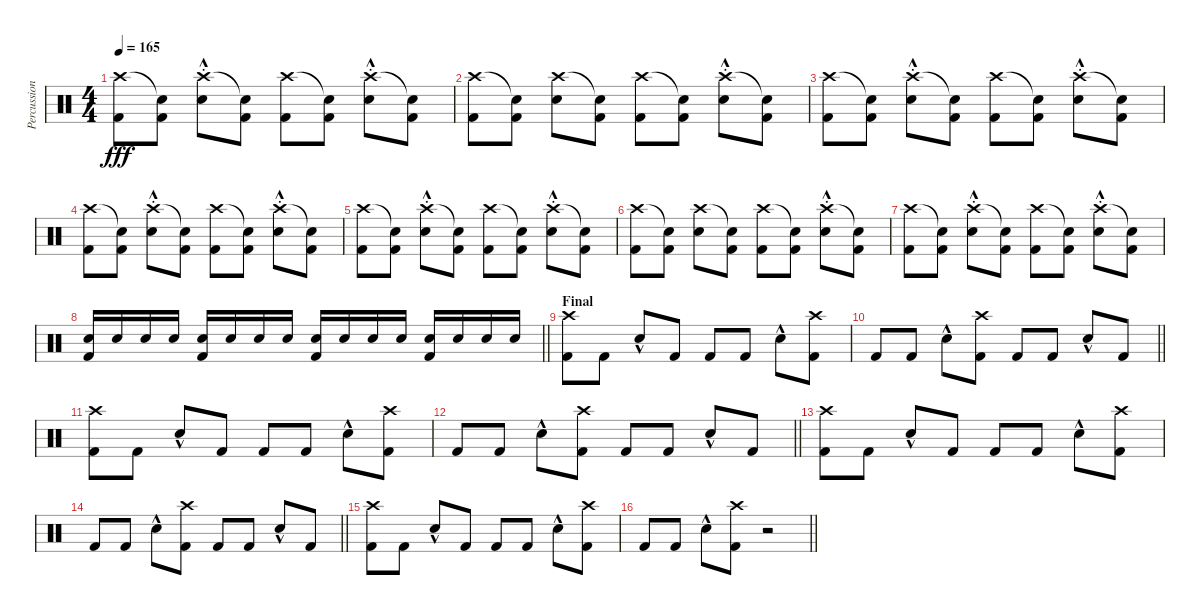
\track ("Percussions" "Percussion") {instrument percussion}
\staff {score}
\articulation defaults
\ts (4 4)
\tempo 165
\clef neutral
\ks c
("Crash high (hit)" "Kick (hit) 2").8{dy fff} ("Snare (hit)"{t} "Kick (hit) 2").8 ("Crash high (hit)"{hac st} "Electric Snare (hit)"{hac st}).8 ("Snare (hit)"{t} "Kick (hit) 2").8 ("Crash high (hit)" "Kick (hit) 2").8 ("Snare (hit)"{t} "Kick (hit) 2").8 ("Crash high (hit)"{hac st} "Electric Snare (hit)"{hac st}).8 ("Snare (hit)"{t} "Kick (hit) 2").8 |
("Crash high (hit)" "Kick (hit) 2").8 ("Snare (hit)"{t} "Kick (hit) 2").8 ("Crash high (hit)" "Electric Snare (hit)").8 ("Snare (hit)"{t} "Kick (hit) 2").8 ("Crash high (hit)" "Kick (hit) 2").8 ("Snare (hit)"{t} "Kick (hit) 2").8 ("Crash high (hit)"{hac st} "Electric Snare (hit)"{hac st}).8 ("Snare (hit)"{t} "Kick (hit) 2").8 |
("Crash high (hit)" "Kick (hit) 2").8 ("Snare (hit)"{t} "Kick (hit) 2").8 ("Crash high (hit)"{hac st} "Electric Snare (hit)"{hac st}).8 ("Snare (hit)"{t} "Kick (hit) 2").8 ("Crash high (hit)" "Kick (hit) 2").8 ("Snare (hit)"{t} "Kick (hit) 2").8 ("Crash high (hit)"{hac st} "Electric Snare (hit)"{hac st}).8 ("Snare (hit)"{t} "Kick (hit) 2").8 |
("Crash high (hit)" "Kick (hit) 2").8 ("Snare (hit)"{t} "Kick (hit) 2").8 ("Crash high (hit)"{hac st} "Electric Snare (hit)"{hac st}).8 ("Snare (hit)"{t} "Kick (hit) 2").8 ("Crash high (hit)" "Kick (hit) 2").8 ("Snare (hit)"{t} "Kick (hit) 2").8 ("Crash high (hit)"{hac st} "Electric Snare (hit)"{hac st}).8 ("Snare (hit)"{t} "Kick (hit) 2").8 |
("Crash high (hit)" "Kick (hit) 2").8 ("Snare (hit)"{t} "Kick (hit) 2").8 ("Crash high (hit)"{hac st} "Electric Snare (hit)"{hac st}).8 ("Snare (hit)"{t} "Kick (hit) 2").8 ("Crash high (hit)" "Kick (hit) 2").8 ("Snare (hit)"{t} "Kick (hit) 2").8 ("Crash high (hit)"{hac st} "Electric Snare (hit)"{hac st}).8 ("Snare (hit)"{t} "Kick (hit) 2").8 |
("Crash high (hit)" "Kick (hit) 2").8 ("Snare (hit)"{t} "Kick (hit) 2").8 ("Crash high (hit)" "Electric Snare (hit)").8 ("Snare (hit)"{t} "Kick (hit) 2").8 ("Crash high (hit)" "Kick (hit) 2").8 ("Snare (hit)"{t} "Kick (hit) 2").8 ("Crash high (hit)"{hac st} "Electric Snare (hit)"{hac st}).8 ("Snare (hit)"{t} "Kick (hit) 2").8 |
("Crash high (hit)" "Kick (hit) 2").8 ("Snare (hit)"{t} "Kick (hit) 2").8 ("Crash high (hit)"{hac st} "Electric Snare (hit)"{hac st}).8 ("Snare (hit)"{t} "Kick (hit) 2").8 ("Crash high (hit)" "Kick (hit) 2").8 ("Snare (hit)"{t} "Kick (hit) 2").8 ("Crash high (hit)"{hac st} "Electric Snare (hit)"{hac st}).8 ("Snare (hit)"{t} "Kick (hit) 2").8 |
\barLineRight lightlight
("Electric Snare (hit)" "Kick (hit) 2").16 "Electric Snare (hit)".16 "Electric Snare (hit)".16 "Electric Snare (hit)".16 ("Electric Snare (hit)" "Kick (hit) 2").16 "Electric Snare (hit)".16 "Electric Snare (hit)".16 "Electric Snare (hit)".16 ("Electric Snare (hit)" "Kick (hit) 2").16 "Electric Snare (hit)".16 "Electric Snare (hit)".16 "Electric Snare (hit)".16 ("Electric Snare (hit)" "Kick (hit) 2").16 "Electric Snare (hit)".16 "Electric Snare (hit)".16 "Electric Snare (hit)".16 |
\section ("" "Final")
("Crash high (hit)" "Kick (hit) 2").8 "Kick (hit) 2".8 "Snare (hit) 2"{hac}.8 "Kick (hit) 2".8 "Kick (hit) 2".8 "Kick (hit) 2".8 "Snare (hit) 2"{hac}.8 ("Crash high (hit)" "Kick (hit) 2").8 |
\barLineRight lightlight "Kick (hit) 2".8 "Kick (hit) 2".8 "Snare (hit) 2"{hac}.8
("Crash high (hit)" "Kick (hit) 2").8 "Kick (hit) 2".8 "Kick (hit) 2".8 "Snare (hit) 2"{hac}.8 "Kick (hit) 2".8 |
("Crash high (hit)" "Kick (hit) 2").8 "Kick (hit) 2".8 "Snare (hit) 2"{hac}.8 "Kick (hit) 2".8 "Kick (hit) 2".8 "Kick (hit) 2".8 "Snare (hit) 2"{hac}.8 ("Crash high (hit)" "Kick (hit) 2").8 |
\barLineRight lightlight "Kick (hit) 2".8 "Kick (hit) 2".8 "Snare (hit) 2"{hac}.8
("Crash high (hit)" "Kick (hit) 2").8 "Kick (hit) 2".8 "Kick (hit) 2".8 "Snare (hit) 2"{hac}.8 "Kick (hit) 2".8 |
("Crash high (hit)" "Kick (hit) 2").8 "Kick (hit) 2".8 "Snare (hit) 2"{hac}.8 "Kick (hit) 2".8 "Kick (hit) 2".8 "Kick (hit) 2".8 "Snare (hit) 2"{hac}.8 ("Crash high (hit)" "Kick (hit) 2").8 |
\barLineRight lightlight "Kick (hit) 2".8 "Kick (hit) 2".8 "Snare (hit) 2"{hac}.8
("Crash high (hit)" "Kick (hit) 2").8 "Kick (hit) 2".8 "Kick (hit) 2".8 "Snare (hit) 2"{hac}.8 "Kick (hit) 2".8 |
("Crash high (hit)" "Kick (hit) 2").8 "Kick (hit) 2".8 "Snare (hit) 2"{hac}.8 "Kick (hit) 2".8 "Kick (hit) 2".8 "Kick (hit) 2".8 "Snare (hit) 2"{hac}.8 ("Crash high (hit)" "Kick (hit) 2").8 |
\barLineRight lightlight "Kick (hit) 2".8 "Kick (hit) 2".8 "Snare (hit) 2"{hac}.8
("Crash high (hit)" "Kick (hit) 2").8 r.2
